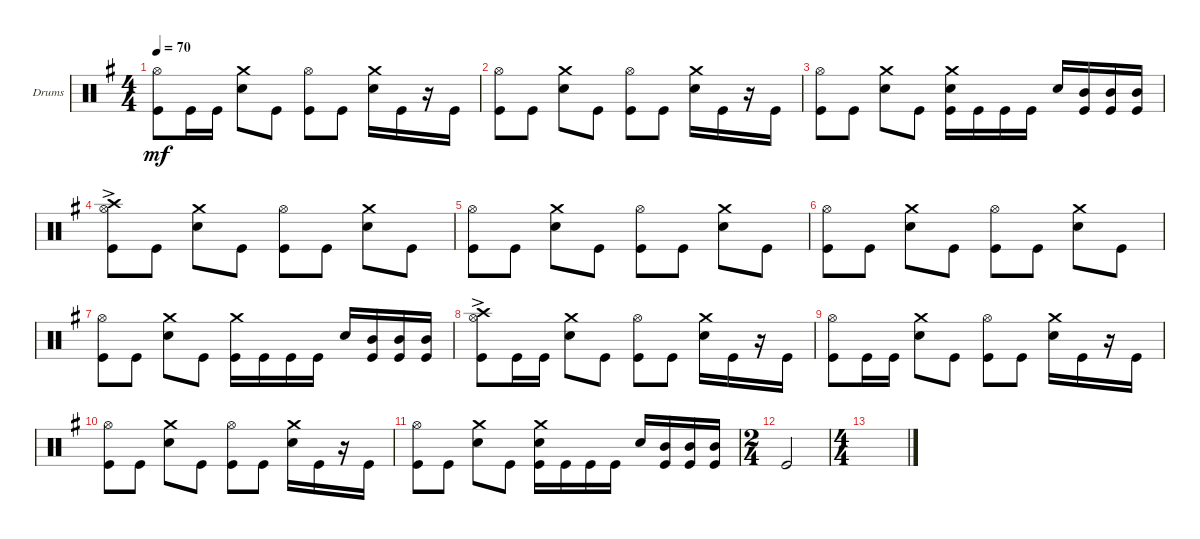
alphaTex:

\defaultSystemsLayout 4
\bracketExtendMode groupsimilarinstruments
\firstSystemTrackNameOrientation horizontal
\otherSystemsTrackNameOrientation horizontal
\track ("Drumkit" "Drums") {instrument percussion}
\staff {score}
\articulation defaults
\ts (4 4)
\tempo 70
\clef neutral
\ks eminor
("Kick (hit)" "Hi-Hat (open)").8{dy mf} "Kick (hit)".16 "Kick (hit)".16 ("Snare (hit) 2" "Crash medium (hit)").8 "Kick (hit)".8 ("Kick (hit)" "Hi-Hat (open)").8 "Kick (hit)".8 ("Snare (hit) 2" "Crash medium (hit)").16 "Kick (hit)".16 r.16 "Kick (hit)".16 |
("Kick (hit)" "Hi-Hat (open)").8 "Kick (hit)".8 ("Snare (hit) 2" "Crash medium (hit)").8 "Kick (hit)".8 ("Kick (hit)" "Hi-Hat (open)").8 "Kick (hit)".8 ("Snare (hit) 2" "Crash medium (hit)").16 "Kick (hit)".16 r.16 "Kick (hit)".16 |
("Kick (hit)" "Hi-Hat (open)").8 "Kick (hit)".8 ("Snare (hit) 2" "Crash medium (hit)").8 "Kick (hit)".8 ("Kick (hit)" "Crash medium (hit)" "Snare (hit) 2").16 "Kick (hit)".16 "Kick (hit)".16 "Kick (hit)".16 "Snare (hit) 2".16 ("Kick (hit)" "Mid Tom (hit)").16 ("Kick (hit)" "Mid Tom (hit)").16 ("Kick (hit)" "Mid Tom (hit)").16 |
("Kick (hit)" "Hi-Hat (open)" "Crash high (hit)"{ac}).8 "Kick (hit)".8 ("Snare (hit) 2" "Crash medium (hit)").8 "Kick (hit)".8 ("Kick (hit)" "Hi-Hat (open)").8 "Kick (hit)".8 ("Snare (hit) 2" "Crash medium (hit)").8 "Kick (hit)".8 |
("Kick (hit)" "Hi-Hat (open)").8 "Kick (hit)".8 ("Snare (hit) 2" "Crash medium (hit)").8 "Kick (hit)".8 ("Kick (hit)" "Hi-Hat (open)").8 "Kick (hit)".8 ("Snare (hit) 2" "Crash medium (hit)").8 "Kick (hit)".8 |
("Kick (hit)" "Hi-Hat (open)").8 "Kick (hit)".8 ("Snare (hit) 2" "Crash medium (hit)").8 "Kick (hit)".8 ("Kick (hit)" "Hi-Hat (open)").8 "Kick (hit)".8 ("Snare (hit) 2" "Crash medium (hit)").8 "Kick (hit)".8 |
("Kick (hit)" "Hi-Hat (open)").8 "Kick (hit)".8 ("Snare (hit) 2" "Crash medium (hit)").8 "Kick (hit)".8 ("Kick (hit)" "Crash medium (hit)").16 "Kick (hit)".16 "Kick (hit)".16 "Kick (hit)".16 "Snare (hit) 2".16 ("Kick (hit)" "Mid Tom (hit)").16 ("Kick (hit)" "Mid Tom (hit)").16 ("Kick (hit)" "Mid Tom (hit)").16 |
("Kick (hit)" "Hi-Hat (open)" "Crash high (hit)"{ac}).8 "Kick (hit)".16 "Kick (hit)".16 ("Snare (hit) 2" "Crash medium (hit)").8 "Kick (hit)".8 ("Kick (hit)" "Hi-Hat (open)").8 "Kick (hit)".8 ("Snare (hit) 2" "Crash medium (hit)").16 "Kick (hit)".16 r.16 "Kick (hit)".16 |
("Kick (hit)" "Hi-Hat (open)").8 "Kick (hit)".16 "Kick (hit)".16 ("Snare (hit) 2" "Crash medium (hit)").8 "Kick (hit)".8 ("Kick (hit)" "Hi-Hat (open)").8 "Kick (hit)".8 ("Snare (hit) 2" "Crash medium (hit)").16 "Kick (hit)".16 r.16 "Kick (hit)".16 |
("Kick (hit)" "Hi-Hat (open)").8 "Kick (hit)".8 ("Snare (hit) 2" "Crash medium (hit)").8 "Kick (hit)".8 ("Kick (hit)" "Hi-Hat (open)").8 "Kick (hit)".8 ("Snare (hit) 2" "Crash medium (hit)").16 "Kick (hit)".16 r.16 "Kick (hit)".16 |
("Kick (hit)" "Hi-Hat (open)").8 "Kick (hit)".8 ("Snare (hit) 2" "Crash medium (hit)").8 "Kick (hit)".8 ("Kick (hit)" "Crash medium (hit)" "Snare (hit) 2").16 "Kick (hit)".16 "Kick (hit)".16 "Kick (hit)".16 "Snare (hit) 2".16 ("Kick (hit)" "Mid Tom (hit)").16 ("Kick (hit)" "Mid Tom (hit)").16 ("Kick (hit)" "Mid Tom (hit)").16 |
\ts (2 4)
"Kick (hit)".2 |
\ts (4 4)
